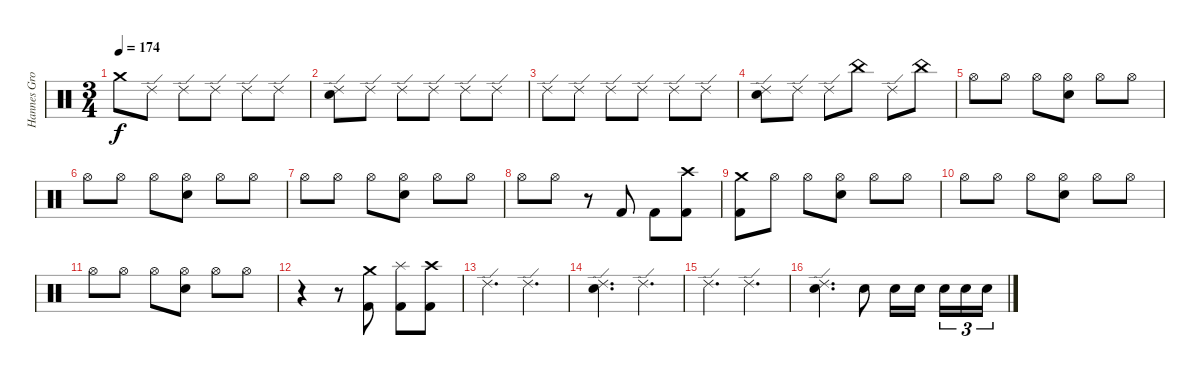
\track ("Hannes Grossmann" "Hannes Gro") {instrument percussion}
\staff {score}
\articulation defaults
\ts (3 4)
\tempo 174
\clef neutral
\ks c "Crash medium (hit)".8{dy f} "Ride (edge) 2".8 "Ride (edge) 2".8 "Ride (edge) 2".8 "Ride (edge) 2".8 "Ride (edge) 2".8
|
("Ride (edge) 2" "Electric Snare (hit)").8 "Ride (edge) 2".8 "Ride (edge) 2".8 "Ride (edge) 2".8 "Ride (edge) 2".8 "Ride (edge) 2".8 |
"Ride (edge) 2".8 "Ride (edge) 2".8 "Ride (edge) 2".8 "Ride (edge) 2".8 "Ride (edge) 2".8 "Ride (edge) 2".8 |
("Ride (edge) 2" "Electric Snare (hit)").8 "Ride (edge) 2".8 "Ride (edge) 2".8 "China (hit)".8 "Ride (edge) 2".8 "China (hit)".8 |
"Hi-Hat (open)".8 "Hi-Hat (open)".8 "Hi-Hat (open)".8 ("Hi-Hat (open)" "Electric Snare (hit)").8 "Hi-Hat (open)".8 "Hi-Hat (open)".8 |
"Hi-Hat (open)".8 "Hi-Hat (open)".8 "Hi-Hat (open)".8 ("Hi-Hat (open)" "Electric Snare (hit)").8 "Hi-Hat (open)".8 "Hi-Hat (open)".8 |
"Hi-Hat (open)".8 "Hi-Hat (open)".8 "Hi-Hat (open)".8 ("Hi-Hat (open)" "Electric Snare (hit)").8 "Hi-Hat (open)".8 "Hi-Hat (open)".8 |
"Hi-Hat (open)".8 "Hi-Hat (open)".8 r.8 "Kick (hit) 2".8 "Kick (hit) 2".8 ("Crash high (hit)" "Kick (hit) 2").8 |
("Crash medium (hit)" "Kick (hit) 2").8 "Hi-Hat (open)".8 "Hi-Hat (open)".8 ("Hi-Hat (open)" "Electric Snare (hit)").8 "Hi-Hat (open)".8 "Hi-Hat (open)".8 |
"Hi-Hat (open)".8 "Hi-Hat (open)".8 "Hi-Hat (open)".8 ("Hi-Hat (open)" "Electric Snare (hit)").8 "Hi-Hat (open)".8 "Hi-Hat (open)".8 |
"Hi-Hat (open)".8 "Hi-Hat (open)".8 "Hi-Hat (open)".8 ("Hi-Hat (open)" "Electric Snare (hit)").8 "Hi-Hat (open)".8 "Hi-Hat (open)".8 |
r.4 r.8 ("Crash medium (hit)" "Kick (hit) 2").8 ("Splash (hit)" "Kick (hit) 2").8 ("Crash high (hit)" "Kick (hit) 2").8 |
"Ride (edge) 2".4{d} "Ride (edge) 2".4{d} |
("Ride (edge) 2" "Electric Snare (hit)").4{d} "Ride (edge) 2".4{d} |
"Ride (edge) 2".4{d} "Ride (edge) 2".4{d} |
("Ride (edge) 2" "Electric Snare (hit)").4{d} "Electric Snare (hit)".8 "Electric Snare (hit)".16 "Electric Snare (hit)".16{beam splitsecondary} "Electric Snare (hit)".16{tu (3 2)} "Electric Snare (hit)".16{tu (3 2)} "Electric Snare (hit)".16{tu (3 2)}
